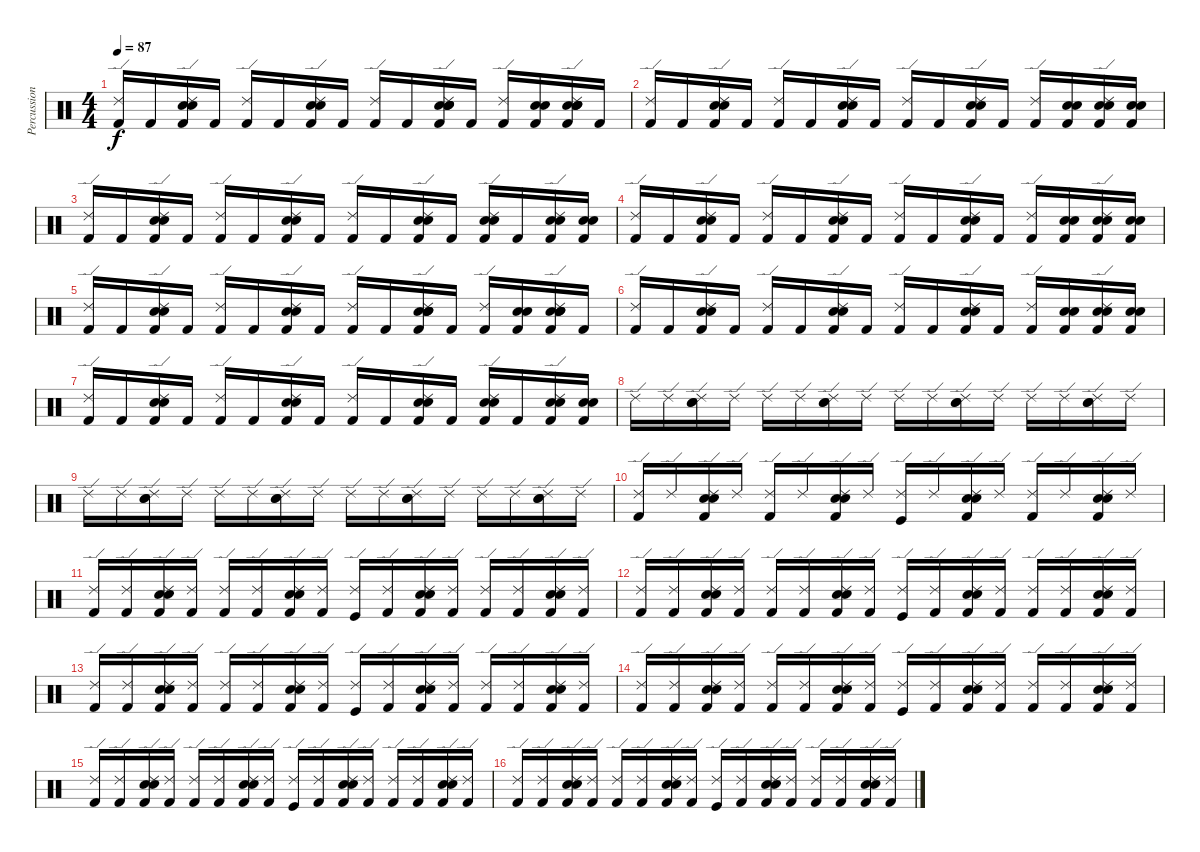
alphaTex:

\track ("Percussion" "Percussion") {instrument percussion}
\staff {score}
\articulation defaults
\ts (4 4)
\tempo 87
\clef neutral
\ks c
("Ride (edge) 2" "Kick (hit) 2").16{dy f} "Kick (hit) 2".16 ("Ride (edge) 2" "Hand Clap (hit)" "Electric Snare (hit)" "Kick (hit) 2").16 "Kick (hit) 2".16 ("Ride (edge) 2" "Kick (hit) 2").16 "Kick (hit) 2".16 ("Ride (edge) 2" "Hand Clap (hit)" "Electric Snare (hit)" "Kick (hit) 2").16 "Kick (hit) 2".16 ("Ride (edge) 2" "Kick (hit) 2").16 "Kick (hit) 2".16 ("Hand Clap (hit)" "Ride (edge) 2" "Hand Clap (hit)" "Hand Clap (hit)" "Electric Snare (hit)" "Kick (hit) 2").16 "Kick (hit) 2".16 ("Ride (edge) 2" "Kick (hit) 2").16 ("Hand Clap (hit)" "Hand Clap (hit)" "Kick (hit) 2").16 ("Hand Clap (hit)" "Ride (edge) 2" "Hand Clap (hit)" "Hand Clap (hit)" "Electric Snare (hit)" "Kick (hit) 2").16 "Kick (hit) 2".16 |
("Ride (edge) 2" "Kick (hit) 2").16 "Kick (hit) 2".16 ("Ride (edge) 2" "Hand Clap (hit)" "Electric Snare (hit)" "Kick (hit) 2").16 "Kick (hit) 2".16 ("Ride (edge) 2" "Kick (hit) 2").16 "Kick (hit) 2".16 ("Ride (edge) 2" "Hand Clap (hit)" "Electric Snare (hit)" "Kick (hit) 2").16 "Kick (hit) 2".16 ("Ride (edge) 2" "Kick (hit) 2").16 "Kick (hit) 2".16 ("Ride (edge) 2" "Hand Clap (hit)" "Electric Snare (hit)" "Kick (hit) 2").16 "Kick (hit) 2".16 ("Ride (edge) 2" "Kick (hit) 2").16 ("Hand Clap (hit)" "Hand Clap (hit)" "Kick (hit) 2").16 ("Ride (edge) 2" "Hand Clap (hit)" "Electric Snare (hit)" "Kick (hit) 2").16 ("Hand Clap (hit)" "Hand Clap (hit)" "Kick (hit) 2").16 |
("Ride (edge) 2" "Kick (hit) 2").16 "Kick (hit) 2".16 ("Ride (edge) 2" "Hand Clap (hit)" "Electric Snare (hit)" "Kick (hit) 2").16 "Kick (hit) 2".16 ("Ride (edge) 2" "Kick (hit) 2").16 "Kick (hit) 2".16 ("Ride (edge) 2" "Hand Clap (hit)" "Electric Snare (hit)" "Kick (hit) 2").16 "Kick (hit) 2".16 ("Ride (edge) 2" "Kick (hit) 2").16 "Kick (hit) 2".16 ("Ride (edge) 2" "Hand Clap (hit)" "Electric Snare (hit)" "Kick (hit) 2").16 "Kick (hit) 2".16 ("Hand Clap (hit)" "Ride (edge) 2" "Hand Clap (hit)" "Kick (hit) 2").16 "Kick (hit) 2".16 ("Ride (edge) 2" "Hand Clap (hit)" "Electric Snare (hit)" "Kick (hit) 2").16 ("Hand Clap (hit)" "Hand Clap (hit)" "Kick (hit) 2").16 |
("Ride (edge) 2" "Kick (hit) 2").16 "Kick (hit) 2".16 ("Ride (edge) 2" "Hand Clap (hit)" "Electric Snare (hit)" "Kick (hit) 2").16 "Kick (hit) 2".16 ("Ride (edge) 2" "Kick (hit) 2").16 "Kick (hit) 2".16 ("Ride (edge) 2" "Hand Clap (hit)" "Electric Snare (hit)" "Kick (hit) 2").16 "Kick (hit) 2".16 ("Ride (edge) 2" "Kick (hit) 2").16 "Kick (hit) 2".16 ("Ride (edge) 2" "Hand Clap (hit)" "Electric Snare (hit)" "Kick (hit) 2").16 "Kick (hit) 2".16 ("Ride (edge) 2" "Kick (hit) 2").16 ("Hand Clap (hit)" "Hand Clap (hit)" "Kick (hit) 2").16 ("Ride (edge) 2" "Hand Clap (hit)" "Electric Snare (hit)" "Kick (hit) 2").16 ("Hand Clap (hit)" "Hand Clap (hit)" "Kick (hit) 2").16 |
("Ride (edge) 2" "Kick (hit) 2").16 "Kick (hit) 2".16 ("Ride (edge) 2" "Hand Clap (hit)" "Electric Snare (hit)" "Kick (hit) 2").16 "Kick (hit) 2".16 ("Ride (edge) 2" "Kick (hit) 2").16 "Kick (hit) 2".16 ("Ride (edge) 2" "Hand Clap (hit)" "Electric Snare (hit)" "Kick (hit) 2").16 "Kick (hit) 2".16 ("Ride (edge) 2" "Kick (hit) 2").16 "Kick (hit) 2".16 ("Hand Clap (hit)" "Ride (edge) 2" "Hand Clap (hit)" "Hand Clap (hit)" "Electric Snare (hit)" "Kick (hit) 2").16 "Kick (hit) 2".16 ("Ride (edge) 2" "Kick (hit) 2").16 ("Hand Clap (hit)" "Hand Clap (hit)" "Kick (hit) 2").16 ("Hand Clap (hit)" "Ride (edge) 2" "Hand Clap (hit)" "Hand Clap (hit)" "Electric Snare (hit)" "Kick (hit) 2").16 "Kick (hit) 2".16 |
("Ride (edge) 2" "Kick (hit) 2").16 "Kick (hit) 2".16 ("Ride (edge) 2" "Hand Clap (hit)" "Electric Snare (hit)" "Kick (hit) 2").16 "Kick (hit) 2".16 ("Ride (edge) 2" "Kick (hit) 2").16 "Kick (hit) 2".16 ("Ride (edge) 2" "Hand Clap (hit)" "Electric Snare (hit)" "Kick (hit) 2").16 "Kick (hit) 2".16 ("Ride (edge) 2" "Kick (hit) 2").16 "Kick (hit) 2".16 ("Ride (edge) 2" "Hand Clap (hit)" "Electric Snare (hit)" "Kick (hit) 2").16 "Kick (hit) 2".16 ("Ride (edge) 2" "Kick (hit) 2").16 ("Hand Clap (hit)" "Hand Clap (hit)" "Kick (hit) 2").16 ("Ride (edge) 2" "Hand Clap (hit)" "Electric Snare (hit)" "Kick (hit) 2").16 ("Hand Clap (hit)" "Hand Clap (hit)" "Kick (hit) 2").16 |
("Ride (edge) 2" "Kick (hit) 2").16 "Kick (hit) 2".16 ("Ride (edge) 2" "Hand Clap (hit)" "Electric Snare (hit)" "Kick (hit) 2").16 "Kick (hit) 2".16 ("Ride (edge) 2" "Kick (hit) 2").16 "Kick (hit) 2".16 ("Ride (edge) 2" "Hand Clap (hit)" "Electric Snare (hit)" "Kick (hit) 2").16 "Kick (hit) 2".16 ("Ride (edge) 2" "Kick (hit) 2").16 "Kick (hit) 2".16 ("Ride (edge) 2" "Hand Clap (hit)" "Electric Snare (hit)" "Kick (hit) 2").16 "Kick (hit) 2".16 ("Hand Clap (hit)" "Ride (edge) 2" "Hand Clap (hit)" "Kick (hit) 2").16 "Kick (hit) 2".16 ("Ride (edge) 2" "Hand Clap (hit)" "Electric Snare (hit)" "Kick (hit) 2").16 ("Hand Clap (hit)" "Hand Clap (hit)" "Kick (hit) 2").16 |
"Ride (edge) 2".16 "Ride (edge) 2".16 ("Ride (edge) 2" "Hand Clap (hit)" "Electric Snare (hit)").16 "Ride (edge) 2".16 "Ride (edge) 2".16 "Ride (edge) 2".16 ("Ride (edge) 2" "Hand Clap (hit)" "Electric Snare (hit)").16 "Ride (edge) 2".16 "Ride (edge) 2".16 "Ride (edge) 2".16 ("Ride (edge) 2" "Hand Clap (hit)" "Electric Snare (hit)").16 "Ride (edge) 2".16 "Ride (edge) 2".16 "Ride (edge) 2".16 ("Ride (edge) 2" "Hand Clap (hit)" "Electric Snare (hit)").16 "Ride (edge) 2".16 |
"Ride (edge) 2".16 "Ride (edge) 2".16 ("Ride (edge) 2" "Hand Clap (hit)" "Electric Snare (hit)").16 "Ride (edge) 2".16 "Ride (edge) 2".16 "Ride (edge) 2".16 ("Ride (edge) 2" "Hand Clap (hit)" "Electric Snare (hit)").16 "Ride (edge) 2".16 "Ride (edge) 2".16 "Ride (edge) 2".16 ("Ride (edge) 2" "Hand Clap (hit)" "Electric Snare (hit)").16 "Ride (edge) 2".16 "Ride (edge) 2".16 "Ride (edge) 2".16 ("Ride (edge) 2" "Hand Clap (hit)" "Electric Snare (hit)").16 "Ride (edge) 2".16 |
("Ride (edge) 2" "Kick (hit) 2").16 "Ride (edge) 2".16 ("Ride (edge) 2" "Hand Clap (hit)" "Electric Snare (hit)" "Kick (hit) 2").16 "Ride (edge) 2".16 ("Ride (edge) 2" "Kick (hit) 2").16 "Ride (edge) 2".16 ("Ride (edge) 2" "Hand Clap (hit)" "Electric Snare (hit)" "Kick (hit) 2").16 "Ride (edge) 2".16 ("Ride (edge) 2" "Kick (hit)").16 "Ride (edge) 2".16 ("Ride (edge) 2" "Hand Clap (hit)" "Electric Snare (hit)" "Kick (hit) 2").16 "Ride (edge) 2".16 ("Ride (edge) 2" "Kick (hit) 2").16 "Ride (edge) 2".16 ("Ride (edge) 2" "Hand Clap (hit)" "Electric Snare (hit)" "Kick (hit) 2").16 "Ride (edge) 2".16 |
("Ride (edge) 2" "Kick (hit) 2").16 ("Ride (edge) 2" "Kick (hit) 2").16 ("Ride (edge) 2" "Hand Clap (hit)" "Electric Snare (hit)" "Kick (hit) 2").16 ("Ride (edge) 2" "Kick (hit) 2").16 ("Ride (edge) 2" "Kick (hit) 2").16 ("Ride (edge) 2" "Kick (hit) 2").16 ("Ride (edge) 2" "Hand Clap (hit)" "Electric Snare (hit)" "Kick (hit) 2").16 ("Ride (edge) 2" "Kick (hit) 2").16 ("Ride (edge) 2" "Kick (hit)").16 ("Ride (edge) 2" "Kick (hit) 2").16 ("Ride (edge) 2" "Hand Clap (hit)" "Electric Snare (hit)" "Kick (hit) 2").16 ("Ride (edge) 2" "Kick (hit) 2").16 ("Ride (edge) 2" "Kick (hit) 2").16 ("Ride (edge) 2" "Kick (hit) 2").16 ("Ride (edge) 2" "Hand Clap (hit)" "Electric Snare (hit)" "Kick (hit) 2").16 ("Ride (edge) 2" "Kick (hit) 2").16 |
("Ride (edge) 2" "Kick (hit) 2").16 ("Ride (edge) 2" "Kick (hit) 2").16 ("Ride (edge) 2" "Hand Clap (hit)" "Electric Snare (hit)" "Kick (hit) 2").16 ("Ride (edge) 2" "Kick (hit) 2").16 ("Ride (edge) 2" "Kick (hit) 2").16 ("Ride (edge) 2" "Kick (hit) 2").16 ("Ride (edge) 2" "Hand Clap (hit)" "Electric Snare (hit)" "Kick (hit) 2").16 ("Ride (edge) 2" "Kick (hit) 2").16 ("Ride (edge) 2" "Kick (hit)").16 ("Ride (edge) 2" "Kick (hit) 2").16 ("Ride (edge) 2" "Hand Clap (hit)" "Electric Snare (hit)" "Kick (hit) 2").16 ("Ride (edge) 2" "Kick (hit) 2").16 ("Ride (edge) 2" "Kick (hit) 2").16 ("Ride (edge) 2" "Kick (hit) 2").16 ("Ride (edge) 2" "Hand Clap (hit)" "Electric Snare (hit)" "Kick (hit) 2").16 ("Ride (edge) 2" "Kick (hit) 2").16 |
("Ride (edge) 2" "Kick (hit) 2").16 ("Ride (edge) 2" "Kick (hit) 2").16 ("Ride (edge) 2" "Hand Clap (hit)" "Electric Snare (hit)" "Kick (hit) 2").16 ("Ride (edge) 2" "Kick (hit) 2").16 ("Ride (edge) 2" "Kick (hit) 2").16 ("Ride (edge) 2" "Kick (hit) 2").16 ("Ride (edge) 2" "Hand Clap (hit)" "Electric Snare (hit)" "Kick (hit) 2").16 ("Ride (edge) 2" "Kick (hit) 2").16 ("Ride (edge) 2" "Kick (hit)").16 ("Ride (edge) 2" "Kick (hit) 2").16 ("Ride (edge) 2" "Hand Clap (hit)" "Electric Snare (hit)" "Kick (hit) 2").16 ("Ride (edge) 2" "Kick (hit) 2").16 ("Ride (edge) 2" "Kick (hit) 2").16 ("Ride (edge) 2" "Kick (hit) 2").16 ("Ride (edge) 2" "Hand Clap (hit)" "Electric Snare (hit)" "Kick (hit) 2").16 ("Ride (edge) 2" "Kick (hit) 2").16 |
("Ride (edge) 2" "Kick (hit) 2").16 ("Ride (edge) 2" "Kick (hit) 2").16 ("Ride (edge) 2" "Hand Clap (hit)" "Electric Snare (hit)" "Kick (hit) 2").16 ("Ride (edge) 2" "Kick (hit) 2").16 ("Ride (edge) 2" "Kick (hit) 2").16 ("Ride (edge) 2" "Kick (hit) 2").16 ("Ride (edge) 2" "Hand Clap (hit)" "Electric Snare (hit)" "Kick (hit) 2").16 ("Ride (edge) 2" "Kick (hit) 2").16 ("Ride (edge) 2" "Kick (hit)").16 ("Ride (edge) 2" "Kick (hit) 2").16 ("Ride (edge) 2" "Hand Clap (hit)" "Electric Snare (hit)" "Kick (hit) 2").16 ("Ride (edge) 2" "Kick (hit) 2").16 ("Ride (edge) 2" "Kick (hit) 2").16 ("Ride (edge) 2" "Kick (hit) 2").16 ("Ride (edge) 2" "Hand Clap (hit)" "Electric Snare (hit)" "Kick (hit) 2").16 ("Ride (edge) 2" "Kick (hit) 2").16 |
("Ride (edge) 2" "Kick (hit) 2").16 ("Ride (edge) 2" "Kick (hit) 2").16 ("Ride (edge) 2" "Hand Clap (hit)" "Electric Snare (hit)" "Kick (hit) 2").16 ("Ride (edge) 2" "Kick (hit) 2").16 ("Ride (edge) 2" "Kick (hit) 2").16 ("Ride (edge) 2" "Kick (hit) 2").16 ("Ride (edge) 2" "Hand Clap (hit)" "Electric Snare (hit)" "Kick (hit) 2").16 ("Ride (edge) 2" "Kick (hit) 2").16 ("Ride (edge) 2" "Kick (hit)").16 ("Ride (edge) 2" "Kick (hit) 2").16 ("Ride (edge) 2" "Hand Clap (hit)" "Electric Snare (hit)" "Kick (hit) 2").16 ("Ride (edge) 2" "Kick (hit) 2").16 ("Ride (edge) 2" "Kick (hit) 2").16 ("Ride (edge) 2" "Kick (hit) 2").16 ("Ride (edge) 2" "Hand Clap (hit)" "Electric Snare (hit)" "Kick (hit) 2").16 ("Ride (edge) 2" "Kick (hit) 2").16 |
("Ride (edge) 2" "Kick (hit) 2").16 ("Ride (edge) 2" "Kick (hit) 2").16 ("Ride (edge) 2" "Hand Clap (hit)" "Electric Snare (hit)" "Kick (hit) 2").16 ("Ride (edge) 2" "Kick (hit) 2").16 ("Ride (edge) 2" "Kick (hit) 2").16 ("Ride (edge) 2" "Kick (hit) 2").16 ("Ride (edge) 2" "Hand Clap (hit)" "Electric Snare (hit)" "Kick (hit) 2").16 ("Ride (edge) 2" "Kick (hit) 2").16 ("Ride (edge) 2" "Kick (hit)").16 ("Ride (edge) 2" "Kick (hit) 2").16 ("Ride (edge) 2" "Hand Clap (hit)" "Electric Snare (hit)" "Kick (hit) 2").16 ("Ride (edge) 2" "Kick (hit) 2").16 ("Ride (edge) 2" "Kick (hit) 2").16 ("Ride (edge) 2" "Kick (hit) 2").16 ("Ride (edge) 2" "Hand Clap (hit)" "Electric Snare (hit)" "Kick (hit) 2").16 ("Ride (edge) 2" "Kick (hit) 2").16
